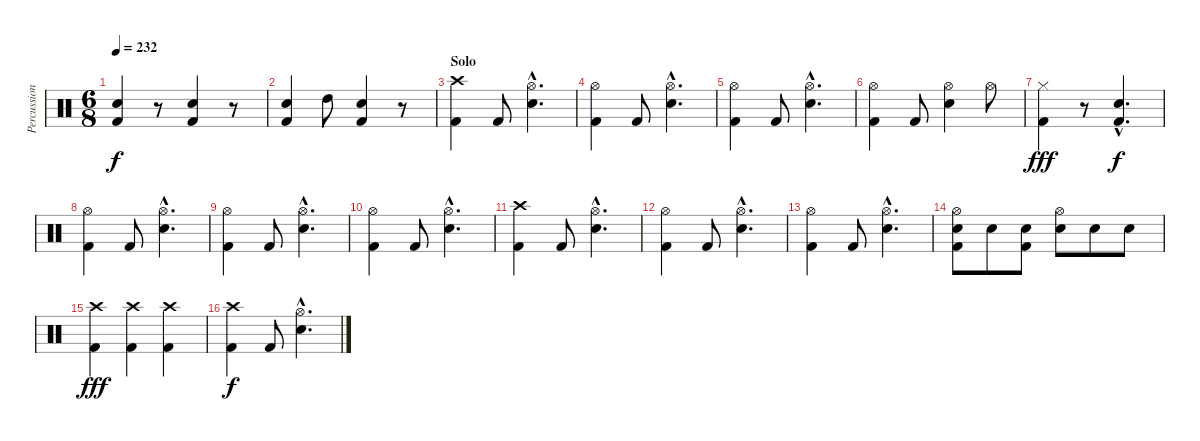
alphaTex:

\track ("Percussion" "Percussion") {instrument percussion}
\staff {score}
\articulation defaults
\ts (6 8)
\tempo 232
\clef neutral
\ks c
("Electric Snare (hit)" "Kick (hit) 2").4{dy f} r.8 ("Electric Snare (hit)" "Kick (hit) 2").4 r.8 |
("Electric Snare (hit)" "Kick (hit) 2").4 "High Tom (hit)".8 ("Electric Snare (hit)" "Kick (hit) 2").4 r.8 |
\section ("" "Solo")
("Crash high (hit)" "Kick (hit) 2").4 "Kick (hit) 2".8 ("Hi-Hat (open)"{hac} "Electric Snare (hit)"{hac}).4{d} |
("Hi-Hat (open)" "Kick (hit) 2").4 "Kick (hit) 2".8 ("Hi-Hat (open)"{hac} "Electric Snare (hit)"{hac}).4{d} |
("Hi-Hat (open)" "Kick (hit) 2").4 "Kick (hit) 2".8 ("Hi-Hat (open)"{hac} "Electric Snare (hit)"{hac}).4{d} |
("Hi-Hat (open)" "Kick (hit) 2").4 "Kick (hit) 2".8 ("Hi-Hat (open)" "Electric Snare (hit)").4 "Hi-Hat (open)".8 |
("Hi-Hat (closed)" "Kick (hit) 2").4{dy fff} r.8 ("Electric Snare (hit)"{hac} "Kick (hit) 2"{hac}).4{d dy f} |
("Hi-Hat (open)" "Kick (hit) 2").4 "Kick (hit) 2".8 ("Hi-Hat (open)"{hac} "Electric Snare (hit)"{hac}).4{d} |
("Hi-Hat (open)" "Kick (hit) 2").4 "Kick (hit) 2".8 ("Hi-Hat (open)"{hac} "Electric Snare (hit)"{hac}).4{d} |
("Hi-Hat (open)" "Kick (hit) 2").4 "Kick (hit) 2".8 ("Hi-Hat (open)"{hac} "Electric Snare (hit)"{hac}).4{d} |
("Crash high (hit)" "Kick (hit) 2").4 "Kick (hit) 2".8 ("Hi-Hat (open)"{hac} "Electric Snare (hit)"{hac}).4{d} |
("Hi-Hat (open)" "Kick (hit) 2").4 "Kick (hit) 2".8 ("Hi-Hat (open)"{hac} "Electric Snare (hit)"{hac}).4{d} |
("Hi-Hat (open)" "Kick (hit) 2").4 "Kick (hit) 2".8 ("Hi-Hat (open)"{hac} "Electric Snare (hit)"{hac}).4{d} |
("Hi-Hat (open)" "Electric Snare (hit)" "Kick (hit) 2").8 "Electric Snare (hit)".8 ("Electric Snare (hit)" "Kick (hit) 2").8 ("Hi-Hat (open)" "Electric Snare (hit)").8 "Electric Snare (hit)".8 "Electric Snare (hit)".8 |
("Crash high (hit)" "Kick (hit) 2").4{dy fff} ("Crash high (hit)" "Kick (hit) 2").4 ("Crash high (hit)" "Kick (hit) 2").4 |
("Crash high (hit)" "Kick (hit) 2").4{dy f} "Kick (hit) 2".8 ("Hi-Hat (open)"{hac} "Electric Snare (hit)"{hac}).4{d}
